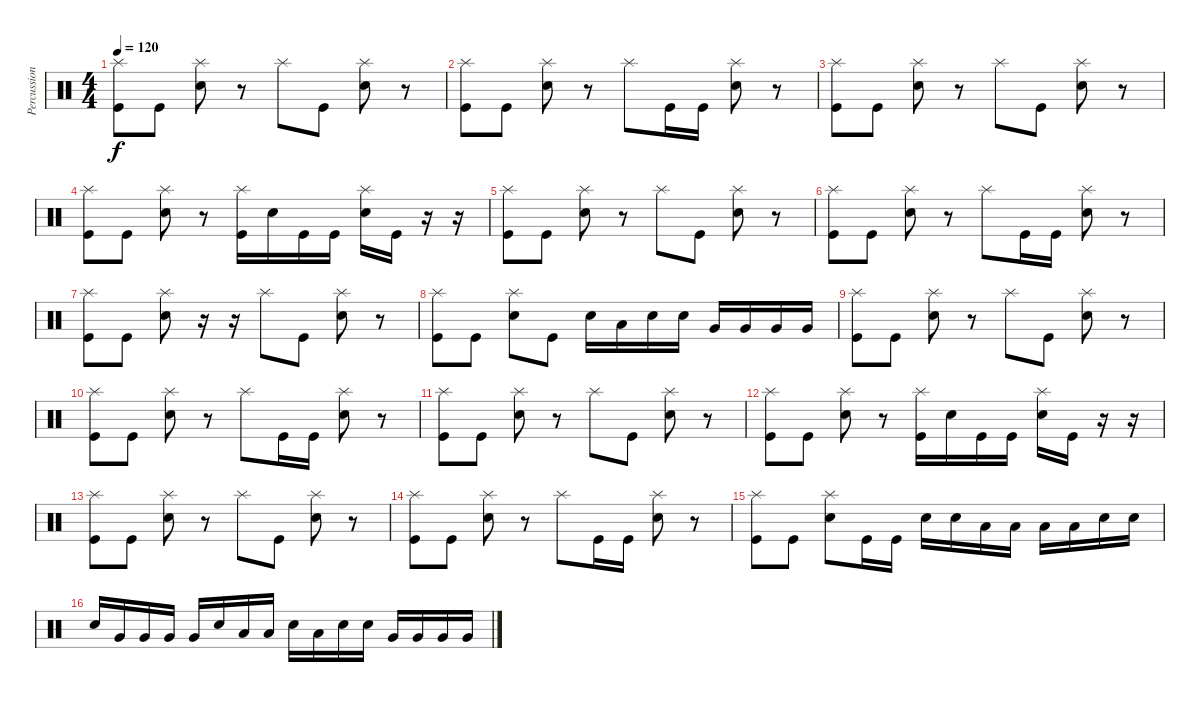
\track ("Percussion" "Percussion") {instrument percussion}
\staff {score}
\articulation defaults
\ts (4 4)
\tempo 120
\clef neutral
\ks c
("Splash (hit)" "Kick (hit)").8{dy f volume 16} "Kick (hit)".8 ("Splash (hit)" "Electric Snare (hit)").8 r.8 "Splash (hit)".8 "Kick (hit)".8 ("Splash (hit)" "Electric Snare (hit)").8 r.8 |
("Splash (hit)" "Kick (hit)").8 "Kick (hit)".8 ("Splash (hit)" "Electric Snare (hit)").8 r.8 "Splash (hit)".8 "Kick (hit)".16 "Kick (hit)".16 ("Splash (hit)" "Electric Snare (hit)").8 r.8 |
("Splash (hit)" "Kick (hit)").8 "Kick (hit)".8 ("Splash (hit)" "Electric Snare (hit)").8 r.8 "Splash (hit)".8 "Kick (hit)".8 ("Splash (hit)" "Electric Snare (hit)").8 r.8 |
("Splash (hit)" "Kick (hit)").8 "Kick (hit)".8 ("Splash (hit)" "Electric Snare (hit)").8 r.8 ("Splash (hit)" "Kick (hit)").16 "Electric Snare (hit)".16 "Kick (hit)".16 "Kick (hit)".16 ("Splash (hit)" "Electric Snare (hit)").16 "Kick (hit)".16 r.16 r.16 |
("Splash (hit)" "Kick (hit)").8 "Kick (hit)".8 ("Splash (hit)" "Electric Snare (hit)").8 r.8 "Splash (hit)".8 "Kick (hit)".8 ("Splash (hit)" "Electric Snare (hit)").8 r.8 |
("Splash (hit)" "Kick (hit)").8 "Kick (hit)".8 ("Splash (hit)" "Electric Snare (hit)").8 r.8 "Splash (hit)".8 "Kick (hit)".16 "Kick (hit)".16 ("Splash (hit)" "Electric Snare (hit)").8 r.8 |
("Splash (hit)" "Kick (hit)").8 "Kick (hit)".8 ("Splash (hit)" "Electric Snare (hit)").8 r.16 r.16 "Splash (hit)".8 "Kick (hit)".8 ("Splash (hit)" "Electric Snare (hit)").8 r.8 |
("Splash (hit)" "Kick (hit)").8 "Kick (hit)".8 ("Splash (hit)" "Electric Snare (hit)").8 "Kick (hit)".8 "Electric Snare (hit)".16 "Low Tom (hit)".16 "Electric Snare (hit)".16 "Electric Snare (hit)".16 "Very Low Tom (hit)".16 "Very Low Tom (hit)".16 "Very Low Tom (hit)".16 "Very Low Tom (hit)".16 |
("Splash (hit)" "Kick (hit)").8{volume 16} "Kick (hit)".8 ("Splash (hit)" "Electric Snare (hit)").8 r.8 "Splash (hit)".8 "Kick (hit)".8 ("Splash (hit)" "Electric Snare (hit)").8 r.8 |
("Splash (hit)" "Kick (hit)").8 "Kick (hit)".8 ("Splash (hit)" "Electric Snare (hit)").8 r.8 "Splash (hit)".8 "Kick (hit)".16 "Kick (hit)".16 ("Splash (hit)" "Electric Snare (hit)").8 r.8 |
("Splash (hit)" "Kick (hit)").8 "Kick (hit)".8 ("Splash (hit)" "Electric Snare (hit)").8 r.8 "Splash (hit)".8 "Kick (hit)".8 ("Splash (hit)" "Electric Snare (hit)").8 r.8 |
("Splash (hit)" "Kick (hit)").8 "Kick (hit)".8 ("Splash (hit)" "Electric Snare (hit)").8 r.8 ("Splash (hit)" "Kick (hit)").16 "Electric Snare (hit)".16 "Kick (hit)".16 "Kick (hit)".16 ("Splash (hit)" "Electric Snare (hit)").16 "Kick (hit)".16 r.16 r.16 |
("Splash (hit)" "Kick (hit)").8 "Kick (hit)".8 ("Splash (hit)" "Electric Snare (hit)").8 r.8 "Splash (hit)".8 "Kick (hit)".8 ("Splash (hit)" "Electric Snare (hit)").8 r.8 |
("Splash (hit)" "Kick (hit)").8 "Kick (hit)".8 ("Splash (hit)" "Electric Snare (hit)").8 r.8 "Splash (hit)".8 "Kick (hit)".16 "Kick (hit)".16 ("Splash (hit)" "Electric Snare (hit)").8 r.8 |
("Splash (hit)" "Kick (hit)").8 "Kick (hit)".8 ("Splash (hit)" "Electric Snare (hit)").8 "Kick (hit)".16 "Kick (hit)".16 "Electric Snare (hit)".16 "Electric Snare (hit)".16 "Low Tom (hit)".16 "Low Tom (hit)".16 "Low Tom (hit)".16 "Low Tom (hit)".16 "Electric Snare (hit)".16 "Electric Snare (hit)".16 |
"Electric Snare (hit)".16 "Very Low Tom (hit)".16 "Very Low Tom (hit)".16 "Very Low Tom (hit)".16 "Very Low Tom (hit)".16 "Electric Snare (hit)".16 "Low Tom (hit)".16 "Low Tom (hit)".16 "Electric Snare (hit)".16 "Low Tom (hit)".16 "Electric Snare (hit)".16 "Electric Snare (hit)".16 "Very Low Tom (hit)".16 "Very Low Tom (hit)".16 "Very Low Tom (hit)".16 "Very Low Tom (hit)".16
